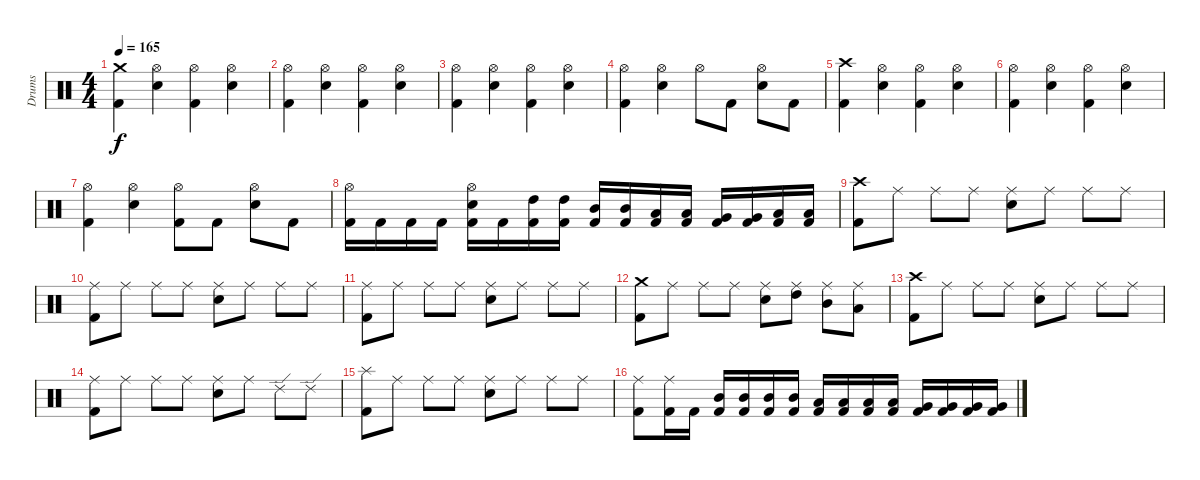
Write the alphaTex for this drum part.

\track ("Drums" "Drums") {instrument percussion}
\staff {score}
\articulation defaults
\ts (4 4)
\tempo 165
\clef neutral
\ks c
("Kick (hit) 2" "Crash medium (hit)").4{dy f} ("Electric Snare (hit)" "Hi-Hat (open)").4 ("Kick (hit) 2" "Hi-Hat (open)").4 ("Electric Snare (hit)" "Hi-Hat (open)").4 |
("Kick (hit) 2" "Hi-Hat (open)").4 ("Electric Snare (hit)" "Hi-Hat (open)").4 ("Kick (hit) 2" "Hi-Hat (open)").4 ("Electric Snare (hit)" "Hi-Hat (open)").4 |
("Kick (hit) 2" "Hi-Hat (open)").4 ("Electric Snare (hit)" "Hi-Hat (open)").4 ("Kick (hit) 2" "Hi-Hat (open)").4 ("Electric Snare (hit)" "Hi-Hat (open)").4 |
("Kick (hit) 2" "Hi-Hat (open)").4 ("Electric Snare (hit)" "Hi-Hat (open)").4 "Hi-Hat (open)".8 "Kick (hit) 2".8 ("Electric Snare (hit)" "Hi-Hat (open)").8 "Kick (hit) 2".8 |
("Kick (hit) 2" "Crash high (hit)").4 ("Electric Snare (hit)" "Hi-Hat (open)").4 ("Kick (hit) 2" "Hi-Hat (open)").4 ("Electric Snare (hit)" "Hi-Hat (open)").4 |
("Kick (hit) 2" "Hi-Hat (open)").4 ("Electric Snare (hit)" "Hi-Hat (open)").4 ("Kick (hit) 2" "Hi-Hat (open)").4 ("Electric Snare (hit)" "Hi-Hat (open)").4 |
("Kick (hit) 2" "Hi-Hat (open)").4 ("Electric Snare (hit)" "Hi-Hat (open)").4 ("Kick (hit) 2" "Hi-Hat (open)").8 "Kick (hit) 2".8 ("Electric Snare (hit)" "Hi-Hat (open)").8 "Kick (hit) 2".8 |
("Kick (hit) 2" "Hi-Hat (open)").16 "Kick (hit) 2".16 "Kick (hit) 2".16 "Kick (hit) 2".16 ("Kick (hit) 2" "Electric Snare (hit)" "Hi-Hat (open)").16 "Kick (hit) 2".16 ("Kick (hit) 2" "High Tom (hit)").16 ("Kick (hit) 2" "High Tom (hit)").16 ("Kick (hit) 2" "Mid Tom (hit)").16 ("Kick (hit) 2" "Mid Tom (hit)").16 ("Kick (hit) 2" "Low Tom (hit)").16 ("Kick (hit) 2" "Low Tom (hit)").16 ("Kick (hit) 2" "Very Low Tom (hit)").16 ("Kick (hit) 2" "Very Low Tom (hit)").16 ("Kick (hit) 2" "Low Floor Tom (hit)").16 ("Kick (hit) 2" "Low Floor Tom (hit)").16 |
("Kick (hit) 2" "Crash high (hit)").8 "Ride (middle)".8 "Ride (middle)".8 "Ride (middle)".8 ("Electric Snare (hit)" "Ride (middle)").8 "Ride (middle)".8 "Ride (middle)".8 "Ride (middle)".8 |
("Kick (hit) 2" "Ride (middle)").8 "Ride (middle)".8 "Ride (middle)".8 "Ride (middle)".8 ("Electric Snare (hit)" "Ride (middle)").8 "Ride (middle)".8 "Ride (middle)".8 "Ride (middle)".8 |
("Kick (hit) 2" "Ride (middle)").8 "Ride (middle)".8 "Ride (middle)".8 "Ride (middle)".8 ("Electric Snare (hit)" "Ride (middle)").8 "Ride (middle)".8 "Ride (middle)".8 "Ride (middle)".8 |
("Kick (hit) 2" "Crash medium (hit)").8 "Ride (middle)".8 "Ride (middle)".8 "Ride (middle)".8 ("Electric Snare (hit)" "Ride (middle)").8 ("High Tom (hit)" "Ride (middle)").8 ("Mid Tom (hit)" "Ride (middle)").8 ("Low Tom (hit)" "Ride (middle)").8 |
("Kick (hit) 2" "Crash high (hit)").8 "Ride (middle)".8 "Ride (middle)".8 "Ride (middle)".8 ("Electric Snare (hit)" "Ride (middle)").8 "Ride (middle)".8 "Ride (middle)".8 "Ride (middle)".8 |
("Kick (hit) 2" "Ride (middle)").8 "Ride (middle)".8 "Ride (middle)".8 "Ride (middle)".8 ("Electric Snare (hit)" "Ride (middle)").8 "Ride (middle)".8 "Ride (edge) 2".8 "Ride (edge) 2".8 |
("Kick (hit) 2" "Splash (hit)").8 "Ride (middle)".8 "Ride (middle)".8 "Ride (middle)".8 ("Electric Snare (hit)" "Ride (middle)").8 "Ride (middle)".8 "Ride (middle)".8 "Ride (middle)".8 |
("Kick (hit) 2" "Ride (middle)").8 ("Kick (hit) 2" "Ride (middle)").16 "Kick (hit) 2".16 ("Kick (hit) 2" "Mid Tom (hit)").16 ("Kick (hit) 2" "Mid Tom (hit)").16 ("Kick (hit) 2" "Mid Tom (hit)").16 ("Kick (hit) 2" "Mid Tom (hit)").16 ("Kick (hit) 2" "Low Tom (hit)").16 ("Kick (hit) 2" "Low Tom (hit)").16 ("Kick (hit) 2" "Low Tom (hit)").16 ("Kick (hit) 2" "Low Tom (hit)").16 ("Kick (hit) 2" "Very Low Tom (hit)").16 ("Kick (hit) 2" "Very Low Tom (hit)").16 ("Kick (hit) 2" "Very Low Tom (hit)").16 ("Kick (hit) 2" "Very Low Tom (hit)").16
